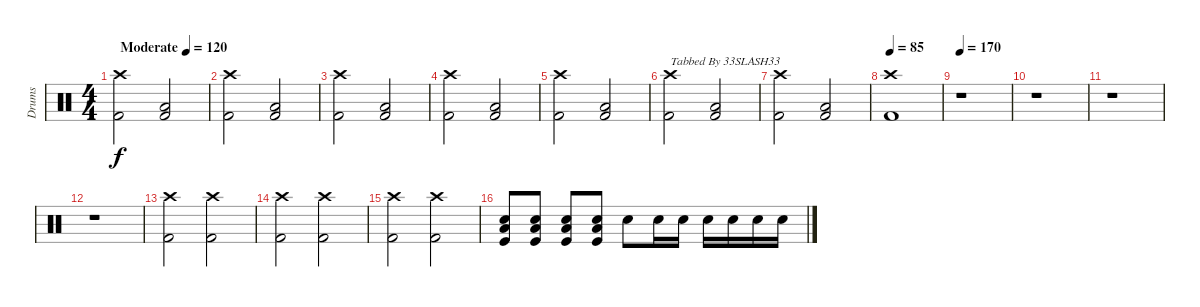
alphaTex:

\track ("Drums" "Drums") {instrument percussion}
\staff {score}
\articulation defaults
\ts (4 4)
\tempo (120 "Moderate")
\tempo 100
\tempo (120 "Moderate")
\clef neutral
\ks c
("Crash high (hit)" "Kick (hit) 2").2{dy f} ("Low Floor Tom (hit)" "Kick (hit) 2").2 |
("Crash high (hit)" "Kick (hit) 2").2 ("Low Floor Tom (hit)" "Kick (hit) 2").2 |
("Crash high (hit)" "Kick (hit) 2").2 ("Low Floor Tom (hit)" "Kick (hit) 2").2 |
("Crash high (hit)" "Kick (hit) 2").2 ("Low Floor Tom (hit)" "Kick (hit) 2").2 |
("Crash high (hit)" "Kick (hit) 2").2 ("Low Floor Tom (hit)" "Kick (hit) 2").2 |
("Crash high (hit)" "Kick (hit) 2").2{txt "Tabbed By 33SLASH33"} ("Low Floor Tom (hit)" "Kick (hit) 2").2 |
("Crash high (hit)" "Kick (hit) 2").2 ("Low Floor Tom (hit)" "Kick (hit) 2").2 |
\tempo 85
("Crash high (hit)" "Kick (hit) 2").1 |
\tempo 170
r.1 |
r.1 |
r.1 |
r.1 |
("Crash high (hit)" "Kick (hit) 2").2 ("Crash high (hit)" "Kick (hit) 2").2 |
("Crash high (hit)" "Kick (hit) 2").2 ("Crash high (hit)" "Kick (hit) 2").2 |
("Crash high (hit)" "Kick (hit) 2").2 ("Crash high (hit)" "Kick (hit) 2").2 |
("Snare (hit) 2" "Low Floor Tom (hit)" "Kick (hit)").8 ("Snare (hit) 2" "Low Floor Tom (hit)" "Kick (hit)").8 ("Snare (hit) 2" "Low Floor Tom (hit)" "Kick (hit)").8 ("Snare (hit) 2" "Low Floor Tom (hit)" "Kick (hit)").8 "Snare (hit) 2".8 "Snare (hit) 2".16 "Snare (hit) 2".16 "Snare (hit) 2".16 "Snare (hit) 2".16 "Snare (hit) 2".16 "Snare (hit) 2".16
